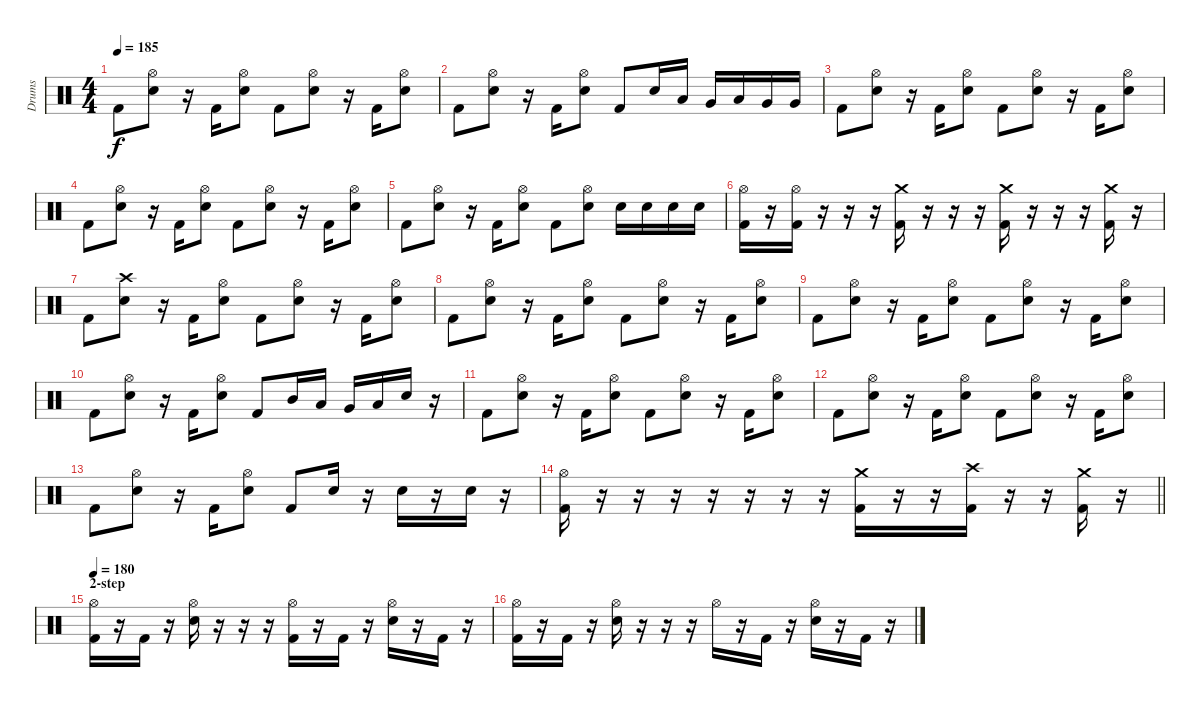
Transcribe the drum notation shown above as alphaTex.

\track ("Drums" "Drums") {instrument percussion}
\staff {score}
\articulation defaults
\ts (4 4)
\tempo 185
\clef neutral
\ks c "Kick (hit) 2".8{dy f}
("Hi-Hat (open)" "Electric Snare (hit)").8 r.16 "Kick (hit) 2".16 ("Hi-Hat (open)" "Electric Snare (hit)").8 "Kick (hit) 2".8 ("Hi-Hat (open)" "Electric Snare (hit)").8 r.16 "Kick (hit) 2".16 ("Hi-Hat (open)" "Electric Snare (hit)").8 |
"Kick (hit) 2".8 ("Hi-Hat (open)" "Electric Snare (hit)").8 r.16 "Kick (hit) 2".16 ("Hi-Hat (open)" "Electric Snare (hit)").8 "Kick (hit) 2".8 "Electric Snare (hit)".16 "Low Tom (hit)".16 "Very Low Tom (hit)".16 "Low Floor Tom (hit)".16 "Very Low Tom (hit)".16 "Very Low Tom (hit)".16 |
"Kick (hit) 2".8 ("Hi-Hat (open)" "Electric Snare (hit)").8 r.16 "Kick (hit) 2".16 ("Hi-Hat (open)" "Electric Snare (hit)").8 "Kick (hit) 2".8 ("Hi-Hat (open)" "Electric Snare (hit)").8 r.16 "Kick (hit) 2".16 ("Hi-Hat (open)" "Electric Snare (hit)").8 |
"Kick (hit) 2".8 ("Hi-Hat (open)" "Electric Snare (hit)").8 r.16 "Kick (hit) 2".16 ("Hi-Hat (open)" "Electric Snare (hit)").8 "Kick (hit) 2".8 ("Hi-Hat (open)" "Electric Snare (hit)").8 r.16 "Kick (hit) 2".16 ("Hi-Hat (open)" "Electric Snare (hit)").8 |
"Kick (hit) 2".8 ("Hi-Hat (open)" "Electric Snare (hit)").8 r.16 "Kick (hit) 2".16 ("Hi-Hat (open)" "Electric Snare (hit)").8 "Kick (hit) 2".8 ("Hi-Hat (open)" "Electric Snare (hit)").8 "Electric Snare (hit)".16 "Electric Snare (hit)".16 "Electric Snare (hit)".16 "Electric Snare (hit)".16 |
("Hi-Hat (open)" "Kick (hit) 2").16 r.16 ("Hi-Hat (open)" "Kick (hit) 2").16 r.16 r.16 r.16 ("Crash medium (hit)" "Kick (hit) 2").16 r.16 r.16 r.16 ("Crash medium (hit)" "Kick (hit) 2").16 r.16 r.16 r.16 ("Crash medium (hit)" "Kick (hit) 2").16 r.16 |
"Kick (hit) 2".8{volume 14} ("Crash high (hit)" "Electric Snare (hit)").8 r.16 "Kick (hit) 2".16 ("Hi-Hat (open)" "Electric Snare (hit)").8 "Kick (hit) 2".8 ("Hi-Hat (open)" "Electric Snare (hit)").8 r.16 "Kick (hit) 2".16 ("Hi-Hat (open)" "Electric Snare (hit)").8 |
"Kick (hit) 2".8 ("Hi-Hat (open)" "Electric Snare (hit)").8 r.16 "Kick (hit) 2".16 ("Hi-Hat (open)" "Electric Snare (hit)").8 "Kick (hit) 2".8 ("Hi-Hat (open)" "Electric Snare (hit)").8 r.16 "Kick (hit) 2".16 ("Hi-Hat (open)" "Electric Snare (hit)").8 |
"Kick (hit) 2".8 ("Hi-Hat (open)" "Electric Snare (hit)").8 r.16 "Kick (hit) 2".16 ("Hi-Hat (open)" "Electric Snare (hit)").8 "Kick (hit) 2".8 ("Hi-Hat (open)" "Electric Snare (hit)").8 r.16 "Kick (hit) 2".16 ("Hi-Hat (open)" "Electric Snare (hit)").8 |
"Kick (hit) 2".8 ("Hi-Hat (open)" "Electric Snare (hit)").8 r.16 "Kick (hit) 2".16 ("Hi-Hat (open)" "Electric Snare (hit)").8 "Kick (hit) 2".8 "Mid Tom (hit)".16 "Low Tom (hit)".16 "Very Low Tom (hit)".16 "Low Floor Tom (hit)".16 "Electric Snare (hit)".16 r.16 |
"Kick (hit) 2".8 ("Hi-Hat (open)" "Electric Snare (hit)").8 r.16 "Kick (hit) 2".16 ("Hi-Hat (open)" "Electric Snare (hit)").8 "Kick (hit) 2".8 ("Hi-Hat (open)" "Electric Snare (hit)").8 r.16 "Kick (hit) 2".16 ("Hi-Hat (open)" "Electric Snare (hit)").8 |
"Kick (hit) 2".8 ("Hi-Hat (open)" "Electric Snare (hit)").8 r.16 "Kick (hit) 2".16 ("Hi-Hat (open)" "Electric Snare (hit)").8 "Kick (hit) 2".8 ("Hi-Hat (open)" "Electric Snare (hit)").8 r.16 "Kick (hit) 2".16 ("Hi-Hat (open)" "Electric Snare (hit)").8 |
"Kick (hit) 2".8 ("Hi-Hat (open)" "Electric Snare (hit)").8 r.16 "Kick (hit) 2".16 ("Hi-Hat (open)" "Electric Snare (hit)").8 "Kick (hit) 2".8 "Electric Snare (hit)".16 r.16 "Electric Snare (hit)".16 r.16 "Electric Snare (hit)".16 r.16 |
\barLineRight lightlight
("Hi-Hat (open)" "Kick (hit) 2").16 r.16 r.16 r.16 r.16 r.16 r.16 r.16 ("Crash medium (hit)" "Kick (hit) 2").16 r.16 r.16 ("Crash high (hit)" "Kick (hit) 2").16 r.16 r.16 ("Crash medium (hit)" "Kick (hit) 2").16 r.16 |
\section ("" "2-step")
\tempo 180
("Hi-Hat (open)" "Kick (hit) 2").16 r.16 "Kick (hit) 2".16 r.16 ("Hi-Hat (open)" "Electric Snare (hit)").16 r.16 r.16 r.16 ("Hi-Hat (open)" "Kick (hit) 2").16 r.16 "Kick (hit) 2".16 r.16 ("Hi-Hat (open)" "Electric Snare (hit)").16 r.16 "Kick (hit) 2".16 r.16 |
("Hi-Hat (open)" "Kick (hit) 2").16 r.16 "Kick (hit) 2".16 r.16 ("Hi-Hat (open)" "Electric Snare (hit)").16 r.16 r.16 r.16 "Hi-Hat (open)".16 r.16 "Kick (hit) 2".16 r.16 ("Hi-Hat (open)" "Electric Snare (hit)").16 r.16 "Kick (hit) 2".16 r.16
